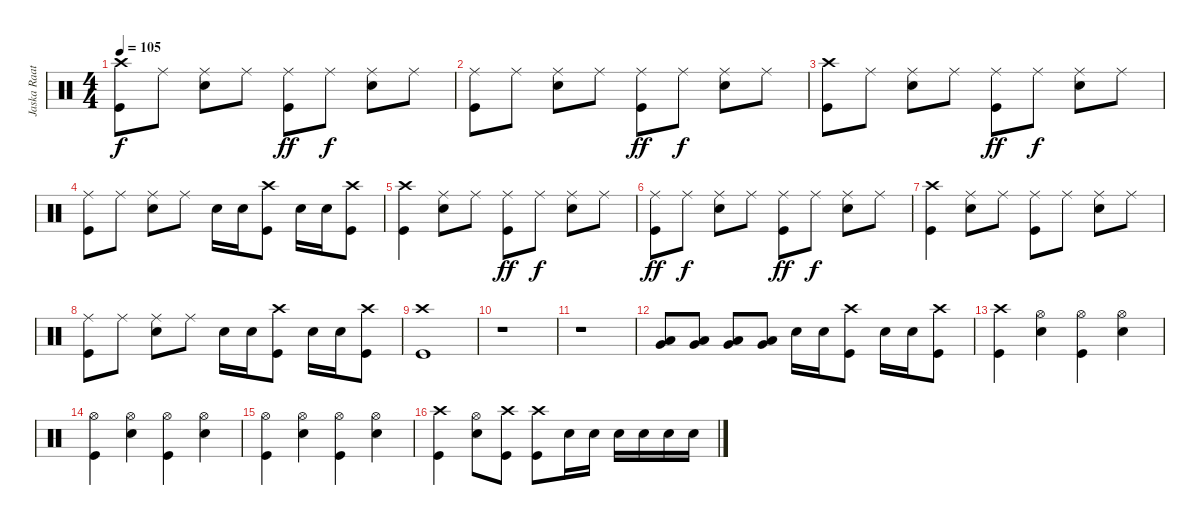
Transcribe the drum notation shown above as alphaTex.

\track ("Jaska Raatikainen" "Jaska Raat") {instrument percussion}
\staff {score}
\articulation defaults
\ts (4 4)
\tempo 105
\clef neutral
\ks c
("Crash high (hit)" "Kick (hit)").8{dy f} "Ride (middle)".8 ("Ride (middle)" "Snare (hit) 2").8 "Ride (middle)".8 ("Ride (middle)" "Kick (hit)").8{dy ff} "Ride (middle)".8{dy f} ("Ride (middle)" "Snare (hit) 2").8 "Ride (middle)".8 |
("Ride (middle)" "Kick (hit)").8 "Ride (middle)".8 ("Ride (middle)" "Snare (hit) 2").8 "Ride (middle)".8 ("Ride (middle)" "Kick (hit)").8{dy ff} "Ride (middle)".8{dy f} ("Ride (middle)" "Snare (hit) 2").8 "Ride (middle)".8 |
("Crash high (hit)" "Kick (hit)").8 "Ride (middle)".8 ("Ride (middle)" "Snare (hit) 2").8 "Ride (middle)".8 ("Ride (middle)" "Kick (hit)").8{dy ff} "Ride (middle)".8{dy f} ("Ride (middle)" "Snare (hit) 2").8 "Ride (middle)".8 |
("Ride (middle)" "Kick (hit)").8 "Ride (middle)".8 ("Ride (middle)" "Snare (hit) 2").8 "Ride (middle)".8 "Snare (hit) 2".16 "Snare (hit) 2".16 ("Crash high (hit)" "Kick (hit)").8 "Snare (hit) 2".16 "Snare (hit) 2".16 ("Crash high (hit)" "Kick (hit)").8 |
("Crash high (hit)" "Kick (hit)").4 ("Ride (middle)" "Snare (hit) 2").8 "Ride (middle)".8 ("Ride (middle)" "Kick (hit)").8{dy ff} "Ride (middle)".8{dy f} ("Ride (middle)" "Snare (hit) 2").8 "Ride (middle)".8 |
("Ride (middle)" "Kick (hit)").8{dy ff} "Ride (middle)".8{dy f} ("Ride (middle)" "Snare (hit) 2").8 "Ride (middle)".8 ("Ride (middle)" "Kick (hit)").8{dy ff} "Ride (middle)".8{dy f} ("Ride (middle)" "Snare (hit) 2").8 "Ride (middle)".8 |
("Crash high (hit)" "Kick (hit)").4 ("Ride (middle)" "Snare (hit) 2").8 "Ride (middle)".8 ("Ride (middle)" "Kick (hit)").8 "Ride (middle)".8 ("Ride (middle)" "Snare (hit) 2").8 "Ride (middle)".8 |
("Ride (middle)" "Kick (hit)").8 "Ride (middle)".8 ("Ride (middle)" "Snare (hit) 2").8 "Ride (middle)".8 "Snare (hit) 2".16 "Snare (hit) 2".16 ("Crash high (hit)" "Kick (hit)").8 "Snare (hit) 2".16 "Snare (hit) 2".16 ("Crash high (hit)" "Kick (hit)").8 |
("Crash high (hit)" "Kick (hit)").1 |
r.1 |
r.1 |
("Low Floor Tom (hit)" "Very Low Tom (hit)").8 ("Low Floor Tom (hit)" "Very Low Tom (hit)").8 ("Low Floor Tom (hit)" "Very Low Tom (hit)").8 ("Low Floor Tom (hit)" "Very Low Tom (hit)").8 "Snare (hit) 2".16 "Snare (hit) 2".16 ("Crash high (hit)" "Kick (hit)").8 "Snare (hit) 2".16 "Snare (hit) 2".16 ("Crash high (hit)" "Kick (hit)").8 |
("Crash high (hit)" "Kick (hit)").4 ("Hi-Hat (open)" "Snare (hit) 2").4 ("Hi-Hat (open)" "Kick (hit)").4 ("Hi-Hat (open)" "Snare (hit) 2").4 |
("Hi-Hat (open)" "Kick (hit)").4 ("Hi-Hat (open)" "Snare (hit) 2").4 ("Hi-Hat (open)" "Kick (hit)").4 ("Hi-Hat (open)" "Snare (hit) 2").4 |
("Hi-Hat (open)" "Kick (hit)").4 ("Hi-Hat (open)" "Snare (hit) 2").4 ("Hi-Hat (open)" "Kick (hit)").4 ("Hi-Hat (open)" "Snare (hit) 2").4 |
("Crash high (hit)" "Kick (hit)").4 ("Hi-Hat (open)" "Snare (hit) 2").8 ("Crash high (hit)" "Kick (hit)").8 ("Crash high (hit)" "Kick (hit)").8 "Snare (hit) 2".16 "Snare (hit) 2".16 "Snare (hit) 2".16 "Snare (hit) 2".16 "Snare (hit) 2".16 "Snare (hit) 2".16
